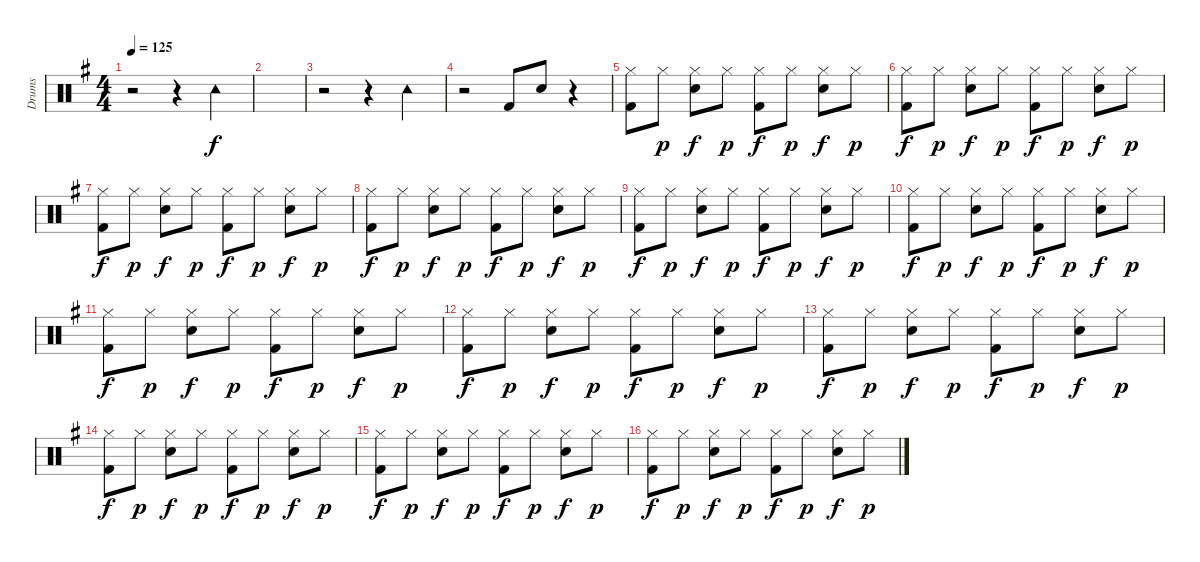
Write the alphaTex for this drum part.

\track ("Drums" "Drums") {instrument percussion}
\staff {score}
\articulation defaults
\ts (4 4)
\tempo 125
\clef neutral
\ks g
r.2{dy f} r.4 "Tambourine (hit)".4 |
|
r.2 r.4 "Tambourine (hit)".4 |
r.2 "Kick (hit) 2".8 "Electric Snare (hit)".8 r.4 |
("Hi-Hat (closed)" "Kick (hit) 2").8 "Hi-Hat (closed)".8{dy p} ("Hi-Hat (closed)" "Electric Snare (hit)").8{dy f} "Hi-Hat (closed)".8{dy p} ("Hi-Hat (closed)" "Kick (hit) 2").8{dy f} "Hi-Hat (closed)".8{dy p} ("Hi-Hat (closed)" "Electric Snare (hit)").8{dy f} "Hi-Hat (closed)".8{dy p} |
("Hi-Hat (closed)" "Kick (hit) 2").8{dy f} "Hi-Hat (closed)".8{dy p} ("Hi-Hat (closed)" "Electric Snare (hit)").8{dy f} "Hi-Hat (closed)".8{dy p} ("Hi-Hat (closed)" "Kick (hit) 2").8{dy f} "Hi-Hat (closed)".8{dy p} ("Hi-Hat (closed)" "Electric Snare (hit)").8{dy f} "Hi-Hat (closed)".8{dy p} |
("Hi-Hat (closed)" "Kick (hit) 2").8{dy f} "Hi-Hat (closed)".8{dy p} ("Hi-Hat (closed)" "Electric Snare (hit)").8{dy f} "Hi-Hat (closed)".8{dy p} ("Hi-Hat (closed)" "Kick (hit) 2").8{dy f} "Hi-Hat (closed)".8{dy p} ("Hi-Hat (closed)" "Electric Snare (hit)").8{dy f} "Hi-Hat (closed)".8{dy p} |
("Hi-Hat (closed)" "Kick (hit) 2").8{dy f} "Hi-Hat (closed)".8{dy p} ("Hi-Hat (closed)" "Electric Snare (hit)").8{dy f} "Hi-Hat (closed)".8{dy p} ("Hi-Hat (closed)" "Kick (hit) 2").8{dy f} "Hi-Hat (closed)".8{dy p} ("Hi-Hat (closed)" "Electric Snare (hit)").8{dy f} "Hi-Hat (closed)".8{dy p} |
("Hi-Hat (closed)" "Kick (hit) 2").8{dy f} "Hi-Hat (closed)".8{dy p} ("Hi-Hat (closed)" "Electric Snare (hit)").8{dy f} "Hi-Hat (closed)".8{dy p} ("Hi-Hat (closed)" "Kick (hit) 2").8{dy f} "Hi-Hat (closed)".8{dy p} ("Hi-Hat (closed)" "Electric Snare (hit)").8{dy f} "Hi-Hat (closed)".8{dy p} |
("Hi-Hat (closed)" "Kick (hit) 2").8{dy f} "Hi-Hat (closed)".8{dy p} ("Hi-Hat (closed)" "Electric Snare (hit)").8{dy f} "Hi-Hat (closed)".8{dy p} ("Hi-Hat (closed)" "Kick (hit) 2").8{dy f} "Hi-Hat (closed)".8{dy p} ("Hi-Hat (closed)" "Electric Snare (hit)").8{dy f} "Hi-Hat (closed)".8{dy p} |
("Hi-Hat (closed)" "Kick (hit) 2").8{dy f} "Hi-Hat (closed)".8{dy p} ("Hi-Hat (closed)" "Electric Snare (hit)").8{dy f} "Hi-Hat (closed)".8{dy p} ("Hi-Hat (closed)" "Kick (hit) 2").8{dy f} "Hi-Hat (closed)".8{dy p} ("Hi-Hat (closed)" "Electric Snare (hit)").8{dy f} "Hi-Hat (closed)".8{dy p} |
("Hi-Hat (closed)" "Kick (hit) 2").8{dy f} "Hi-Hat (closed)".8{dy p} ("Hi-Hat (closed)" "Electric Snare (hit)").8{dy f} "Hi-Hat (closed)".8{dy p} ("Hi-Hat (closed)" "Kick (hit) 2").8{dy f} "Hi-Hat (closed)".8{dy p} ("Hi-Hat (closed)" "Electric Snare (hit)").8{dy f} "Hi-Hat (closed)".8{dy p} |
("Hi-Hat (closed)" "Kick (hit) 2").8{dy f} "Hi-Hat (closed)".8{dy p} ("Hi-Hat (closed)" "Electric Snare (hit)").8{dy f} "Hi-Hat (closed)".8{dy p} ("Hi-Hat (closed)" "Kick (hit) 2").8{dy f} "Hi-Hat (closed)".8{dy p} ("Hi-Hat (closed)" "Electric Snare (hit)").8{dy f} "Hi-Hat (closed)".8{dy p} |
("Hi-Hat (closed)" "Kick (hit) 2").8{dy f} "Hi-Hat (closed)".8{dy p} ("Hi-Hat (closed)" "Electric Snare (hit)").8{dy f} "Hi-Hat (closed)".8{dy p} ("Hi-Hat (closed)" "Kick (hit) 2").8{dy f} "Hi-Hat (closed)".8{dy p} ("Hi-Hat (closed)" "Electric Snare (hit)").8{dy f} "Hi-Hat (closed)".8{dy p} |
("Hi-Hat (closed)" "Kick (hit) 2").8{dy f} "Hi-Hat (closed)".8{dy p} ("Hi-Hat (closed)" "Electric Snare (hit)").8{dy f} "Hi-Hat (closed)".8{dy p} ("Hi-Hat (closed)" "Kick (hit) 2").8{dy f} "Hi-Hat (closed)".8{dy p} ("Hi-Hat (closed)" "Electric Snare (hit)").8{dy f} "Hi-Hat (closed)".8{dy p} |
("Hi-Hat (closed)" "Kick (hit) 2").8{dy f} "Hi-Hat (closed)".8{dy p} ("Hi-Hat (closed)" "Electric Snare (hit)").8{dy f} "Hi-Hat (closed)".8{dy p} ("Hi-Hat (closed)" "Kick (hit) 2").8{dy f} "Hi-Hat (closed)".8{dy p} ("Hi-Hat (closed)" "Electric Snare (hit)").8{dy f} "Hi-Hat (closed)".8{dy p}
